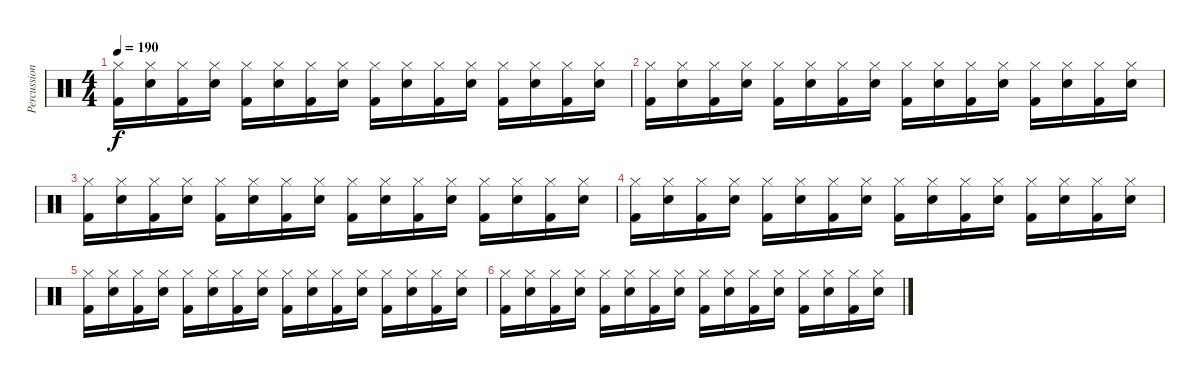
\track ("Percussion" "Percussion") {instrument percussion}
\staff {score}
\articulation defaults
\ts (4 4)
\tempo 190
\clef neutral
\ks c
("Hi-Hat (closed)" "Kick (hit) 2").16{dy f} ("Hi-Hat (closed)" "Snare (hit) 2").16 ("Hi-Hat (closed)" "Kick (hit) 2").16 ("Hi-Hat (closed)" "Snare (hit) 2").16 ("Hi-Hat (closed)" "Kick (hit) 2").16 ("Hi-Hat (closed)" "Snare (hit) 2").16 ("Hi-Hat (closed)" "Kick (hit) 2").16 ("Hi-Hat (closed)" "Snare (hit) 2").16 ("Hi-Hat (closed)" "Kick (hit) 2").16 ("Hi-Hat (closed)" "Snare (hit) 2").16 ("Hi-Hat (closed)" "Kick (hit) 2").16 ("Hi-Hat (closed)" "Snare (hit) 2").16 ("Hi-Hat (closed)" "Kick (hit) 2").16 ("Hi-Hat (closed)" "Snare (hit) 2").16 ("Hi-Hat (closed)" "Kick (hit) 2").16 ("Hi-Hat (closed)" "Snare (hit) 2").16 |
("Hi-Hat (closed)" "Kick (hit) 2").16 ("Hi-Hat (closed)" "Snare (hit) 2").16 ("Hi-Hat (closed)" "Kick (hit) 2").16 ("Hi-Hat (closed)" "Snare (hit) 2").16 ("Hi-Hat (closed)" "Kick (hit) 2").16 ("Hi-Hat (closed)" "Snare (hit) 2").16 ("Hi-Hat (closed)" "Kick (hit) 2").16 ("Hi-Hat (closed)" "Snare (hit) 2").16 ("Hi-Hat (closed)" "Kick (hit) 2").16 ("Hi-Hat (closed)" "Snare (hit) 2").16 ("Hi-Hat (closed)" "Kick (hit) 2").16 ("Hi-Hat (closed)" "Snare (hit) 2").16 ("Hi-Hat (closed)" "Kick (hit) 2").16 ("Hi-Hat (closed)" "Snare (hit) 2").16 ("Hi-Hat (closed)" "Kick (hit) 2").16 ("Hi-Hat (closed)" "Snare (hit) 2").16 |
("Hi-Hat (closed)" "Kick (hit) 2").16{volume 0} ("Hi-Hat (closed)" "Snare (hit) 2").16 ("Hi-Hat (closed)" "Kick (hit) 2").16 ("Hi-Hat (closed)" "Snare (hit) 2").16 ("Hi-Hat (closed)" "Kick (hit) 2").16 ("Hi-Hat (closed)" "Snare (hit) 2").16 ("Hi-Hat (closed)" "Kick (hit) 2").16 ("Hi-Hat (closed)" "Snare (hit) 2").16 ("Hi-Hat (closed)" "Kick (hit) 2").16 ("Hi-Hat (closed)" "Snare (hit) 2").16 ("Hi-Hat (closed)" "Kick (hit) 2").16 ("Hi-Hat (closed)" "Snare (hit) 2").16 ("Hi-Hat (closed)" "Kick (hit) 2").16 ("Hi-Hat (closed)" "Snare (hit) 2").16 ("Hi-Hat (closed)" "Kick (hit) 2").16 ("Hi-Hat (closed)" "Snare (hit) 2").16 |
("Hi-Hat (closed)" "Kick (hit) 2").16 ("Hi-Hat (closed)" "Snare (hit) 2").16 ("Hi-Hat (closed)" "Kick (hit) 2").16 ("Hi-Hat (closed)" "Snare (hit) 2").16 ("Hi-Hat (closed)" "Kick (hit) 2").16 ("Hi-Hat (closed)" "Snare (hit) 2").16 ("Hi-Hat (closed)" "Kick (hit) 2").16 ("Hi-Hat (closed)" "Snare (hit) 2").16 ("Hi-Hat (closed)" "Kick (hit) 2").16 ("Hi-Hat (closed)" "Snare (hit) 2").16 ("Hi-Hat (closed)" "Kick (hit) 2").16 ("Hi-Hat (closed)" "Snare (hit) 2").16 ("Hi-Hat (closed)" "Kick (hit) 2").16 ("Hi-Hat (closed)" "Snare (hit) 2").16 ("Hi-Hat (closed)" "Kick (hit) 2").16 ("Hi-Hat (closed)" "Snare (hit) 2").16 |
("Hi-Hat (closed)" "Kick (hit) 2").16 ("Hi-Hat (closed)" "Snare (hit) 2").16 ("Hi-Hat (closed)" "Kick (hit) 2").16 ("Hi-Hat (closed)" "Snare (hit) 2").16 ("Hi-Hat (closed)" "Kick (hit) 2").16 ("Hi-Hat (closed)" "Snare (hit) 2").16 ("Hi-Hat (closed)" "Kick (hit) 2").16 ("Hi-Hat (closed)" "Snare (hit) 2").16 ("Hi-Hat (closed)" "Kick (hit) 2").16 ("Hi-Hat (closed)" "Snare (hit) 2").16 ("Hi-Hat (closed)" "Kick (hit) 2").16 ("Hi-Hat (closed)" "Snare (hit) 2").16 ("Hi-Hat (closed)" "Kick (hit) 2").16 ("Hi-Hat (closed)" "Snare (hit) 2").16 ("Hi-Hat (closed)" "Kick (hit) 2").16 ("Hi-Hat (closed)" "Snare (hit) 2").16 |
("Hi-Hat (closed)" "Kick (hit) 2").16 ("Hi-Hat (closed)" "Snare (hit) 2").16 ("Hi-Hat (closed)" "Kick (hit) 2").16 ("Hi-Hat (closed)" "Snare (hit) 2").16 ("Hi-Hat (closed)" "Kick (hit) 2").16 ("Hi-Hat (closed)" "Snare (hit) 2").16 ("Hi-Hat (closed)" "Kick (hit) 2").16 ("Hi-Hat (closed)" "Snare (hit) 2").16 ("Hi-Hat (closed)" "Kick (hit) 2").16 ("Hi-Hat (closed)" "Snare (hit) 2").16 ("Hi-Hat (closed)" "Kick (hit) 2").16 ("Hi-Hat (closed)" "Snare (hit) 2").16 ("Hi-Hat (closed)" "Kick (hit) 2").16 ("Hi-Hat (closed)" "Snare (hit) 2").16 ("Hi-Hat (closed)" "Kick (hit) 2").16 ("Hi-Hat (closed)" "Snare (hit) 2").16
